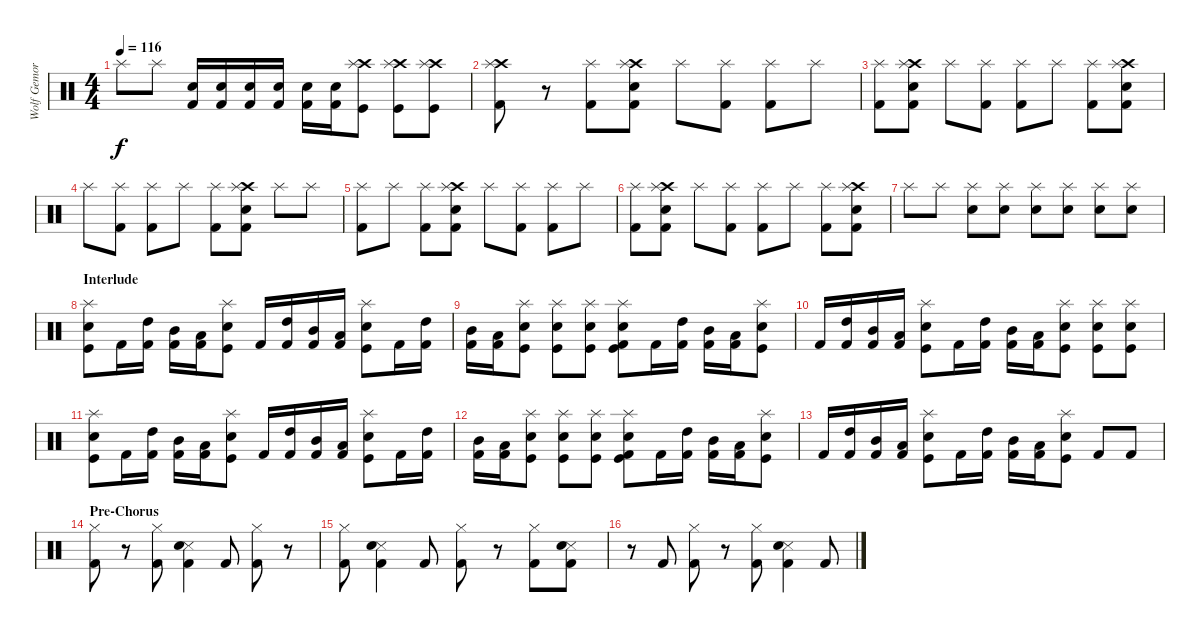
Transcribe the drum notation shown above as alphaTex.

\track ("Wolf Gemora" "Wolf Gemor") {instrument percussion}
\staff {score}
\articulation defaults
\ts (4 4)
\tempo 116
\clef neutral
\ks c "Splash (hit)".8{dy f} "Splash (hit)".8
("Snare (hit) 2" "Kick (hit) 2").16 ("Snare (hit) 2" "Kick (hit) 2").16 ("Snare (hit) 2" "Kick (hit) 2").16 ("Snare (hit) 2" "Kick (hit) 2").16 ("Snare (hit) 2" "Kick (hit) 2").16 ("Snare (hit) 2" "Kick (hit) 2").16 ("Crash high (hit)" "Kick (hit)" "Splash (hit)").8 ("Crash high (hit)" "Kick (hit)" "Splash (hit)").8 ("Crash high (hit)" "Kick (hit)" "Splash (hit)").8 |
("Crash high (hit)" "Splash (hit)" "Kick (hit) 2").8 r.8 ("Splash (hit)" "Kick (hit) 2").8 ("Crash high (hit)" "Snare (hit) 2" "Splash (hit)" "Kick (hit) 2").8 "Splash (hit)".8 ("Splash (hit)" "Kick (hit) 2").8 ("Splash (hit)" "Kick (hit) 2").8 "Splash (hit)".8 |
("Splash (hit)" "Kick (hit) 2").8 ("Crash high (hit)" "Snare (hit) 2" "Splash (hit)" "Kick (hit) 2").8 "Splash (hit)".8 ("Splash (hit)" "Kick (hit) 2").8 ("Splash (hit)" "Kick (hit) 2").8 "Splash (hit)".8 ("Splash (hit)" "Kick (hit) 2").8 ("Crash high (hit)" "Snare (hit) 2" "Splash (hit)" "Kick (hit) 2").8 |
"Splash (hit)".8 ("Splash (hit)" "Kick (hit) 2").8 ("Splash (hit)" "Kick (hit) 2").8 "Splash (hit)".8 ("Splash (hit)" "Kick (hit) 2").8 ("Crash high (hit)" "Snare (hit) 2" "Splash (hit)" "Kick (hit) 2").8 "Splash (hit)".8 "Splash (hit)".8 |
("Splash (hit)" "Kick (hit) 2").8 "Splash (hit)".8 ("Splash (hit)" "Kick (hit) 2").8 ("Crash high (hit)" "Snare (hit) 2" "Splash (hit)" "Kick (hit) 2").8 "Splash (hit)".8 ("Splash (hit)" "Kick (hit) 2").8 ("Splash (hit)" "Kick (hit) 2").8 "Splash (hit)".8 |
("Splash (hit)" "Kick (hit) 2").8 ("Crash high (hit)" "Snare (hit) 2" "Splash (hit)" "Kick (hit) 2").8 "Splash (hit)".8 ("Splash (hit)" "Kick (hit) 2").8 ("Splash (hit)" "Kick (hit) 2").8 "Splash (hit)".8 ("Splash (hit)" "Kick (hit) 2").8 ("Crash high (hit)" "Snare (hit) 2" "Splash (hit)" "Kick (hit) 2").8 |
"Splash (hit)".8 "Splash (hit)".8 ("Snare (hit) 2" "Splash (hit)").8 ("Snare (hit) 2" "Splash (hit)").8 ("Snare (hit) 2" "Splash (hit)").8 ("Snare (hit) 2" "Splash (hit)").8 ("Snare (hit) 2" "Splash (hit)").8 ("Snare (hit) 2" "Splash (hit)").8 |
\section ("" "Interlude")
("Splash (hit)" "Snare (hit) 2" "Kick (hit)").8 "Kick (hit) 2".16 ("High Tom (hit)" "Kick (hit) 2").16 ("Mid Tom (hit)" "Kick (hit) 2").16 ("Low Tom (hit)" "Kick (hit) 2").16 ("Splash (hit)" "Snare (hit) 2" "Kick (hit)").8 "Kick (hit) 2".16 ("High Tom (hit)" "Kick (hit) 2").16 ("Mid Tom (hit)" "Kick (hit) 2").16 ("Low Tom (hit)" "Kick (hit) 2").16 ("Splash (hit)" "Snare (hit) 2" "Kick (hit)").8 "Kick (hit) 2".16 ("High Tom (hit)" "Kick (hit) 2").16 |
("Mid Tom (hit)" "Kick (hit) 2").16 ("Low Tom (hit)" "Kick (hit) 2").16 ("Splash (hit)" "Snare (hit) 2" "Kick (hit)").8 ("Splash (hit)" "Snare (hit) 2" "Kick (hit)").8 ("Splash (hit)" "Snare (hit) 2" "Kick (hit)").8 ("Splash (hit)" "Snare (hit) 2" "Kick (hit)" "Kick (hit) 2").8 "Kick (hit) 2".16 ("High Tom (hit)" "Kick (hit) 2").16 ("Mid Tom (hit)" "Kick (hit) 2").16 ("Low Tom (hit)" "Kick (hit) 2").16 ("Splash (hit)" "Snare (hit) 2" "Kick (hit)").8 |
"Kick (hit) 2".16 ("High Tom (hit)" "Kick (hit) 2").16 ("Mid Tom (hit)" "Kick (hit) 2").16 ("Low Tom (hit)" "Kick (hit) 2").16 ("Splash (hit)" "Snare (hit) 2" "Kick (hit)").8 "Kick (hit) 2".16 ("High Tom (hit)" "Kick (hit) 2").16 ("Mid Tom (hit)" "Kick (hit) 2").16 ("Low Tom (hit)" "Kick (hit) 2").16 ("Splash (hit)" "Snare (hit) 2" "Kick (hit)").8 ("Splash (hit)" "Snare (hit) 2" "Kick (hit)").8 ("Splash (hit)" "Snare (hit) 2" "Kick (hit)").8 |
("Splash (hit)" "Snare (hit) 2" "Kick (hit)").8 "Kick (hit) 2".16 ("High Tom (hit)" "Kick (hit) 2").16 ("Mid Tom (hit)" "Kick (hit) 2").16 ("Low Tom (hit)" "Kick (hit) 2").16 ("Splash (hit)" "Snare (hit) 2" "Kick (hit)").8 "Kick (hit) 2".16 ("High Tom (hit)" "Kick (hit) 2").16 ("Mid Tom (hit)" "Kick (hit) 2").16 ("Low Tom (hit)" "Kick (hit) 2").16 ("Splash (hit)" "Snare (hit) 2" "Kick (hit)").8 "Kick (hit) 2".16 ("High Tom (hit)" "Kick (hit) 2").16 |
("Mid Tom (hit)" "Kick (hit) 2").16 ("Low Tom (hit)" "Kick (hit) 2").16 ("Splash (hit)" "Snare (hit) 2" "Kick (hit)").8 ("Splash (hit)" "Snare (hit) 2" "Kick (hit)").8 ("Splash (hit)" "Snare (hit) 2" "Kick (hit)").8 ("Splash (hit)" "Snare (hit) 2" "Kick (hit)" "Kick (hit) 2").8 "Kick (hit) 2".16 ("High Tom (hit)" "Kick (hit) 2").16 ("Mid Tom (hit)" "Kick (hit) 2").16 ("Low Tom (hit)" "Kick (hit) 2").16 ("Splash (hit)" "Snare (hit) 2" "Kick (hit)").8 |
"Kick (hit) 2".16 ("High Tom (hit)" "Kick (hit) 2").16 ("Mid Tom (hit)" "Kick (hit) 2").16 ("Low Tom (hit)" "Kick (hit) 2").16 ("Splash (hit)" "Snare (hit) 2" "Kick (hit)").8 "Kick (hit) 2".16 ("High Tom (hit)" "Kick (hit) 2").16 ("Mid Tom (hit)" "Kick (hit) 2").16 ("Low Tom (hit)" "Kick (hit) 2").16 ("Splash (hit)" "Snare (hit) 2" "Kick (hit)").8 "Kick (hit) 2".8 "Kick (hit) 2".8 |
\section ("" "Pre-Chorus")
("Hi-Hat (closed)" "Kick (hit) 2").8 r.8 ("Hi-Hat (closed)" "Kick (hit) 2").8 ("Snare (side stick) 3" "Snare (hit) 2" "Kick (hit) 2").4 "Kick (hit) 2".8 ("Hi-Hat (closed)" "Kick (hit) 2").8 r.8 |
("Hi-Hat (closed)" "Kick (hit) 2").8 ("Snare (side stick) 3" "Snare (hit) 2" "Kick (hit) 2").4 "Kick (hit) 2".8 ("Hi-Hat (closed)" "Kick (hit) 2").8 r.8 ("Hi-Hat (closed)" "Kick (hit) 2").8 ("Snare (side stick) 3" "Snare (hit) 2" "Kick (hit) 2").8 |
r.8 "Kick (hit) 2".8 ("Hi-Hat (closed)" "Kick (hit) 2").8 r.8 ("Hi-Hat (closed)" "Kick (hit) 2").8 ("Snare (side stick) 3" "Snare (hit) 2" "Kick (hit) 2").4 "Kick (hit) 2".8
